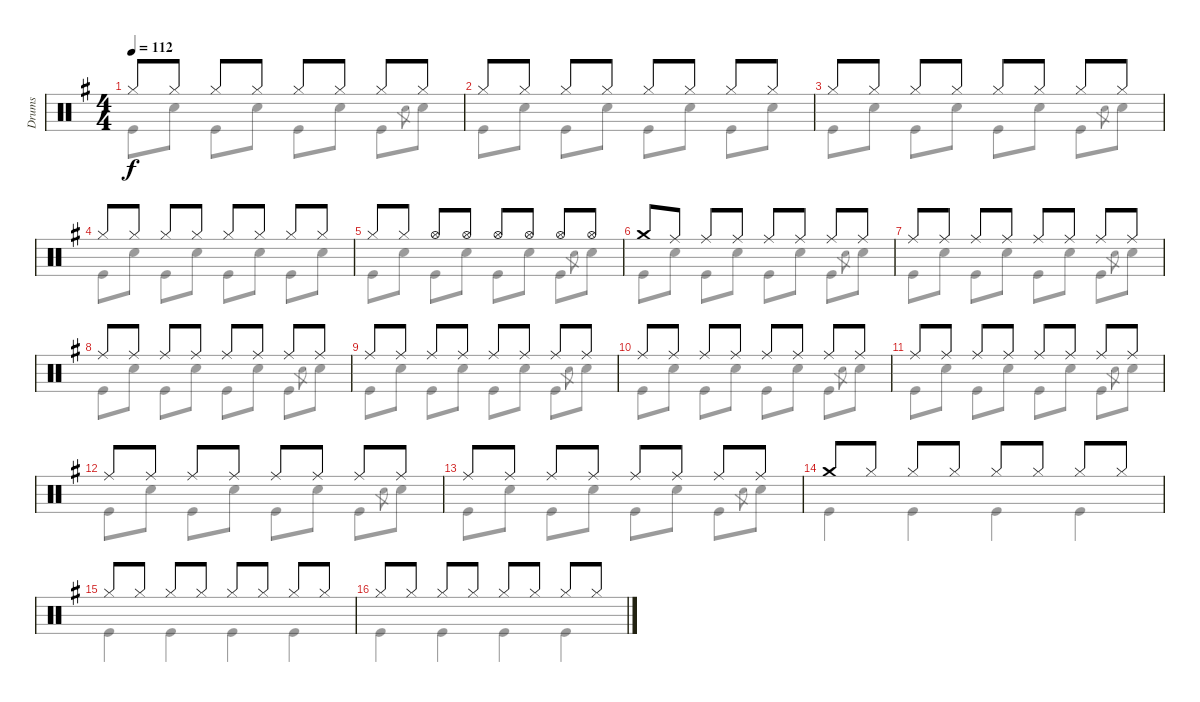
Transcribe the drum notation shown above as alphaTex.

\track ("Drums" "Drums") {instrument percussion}
\staff {score}
\articulation defaults
\voice
\ts (4 4)
\tempo 112
\clef neutral
\ks g "Hi-Hat (closed)".8{dy f} "Hi-Hat (closed)".8 "Hi-Hat (closed)".8 "Hi-Hat (closed)".8 "Hi-Hat (closed)".8 "Hi-Hat (closed)".8 "Hi-Hat (closed)".8 "Hi-Hat (closed)".8
|
"Hi-Hat (closed)".8 "Hi-Hat (closed)".8 "Hi-Hat (closed)".8 "Hi-Hat (closed)".8 "Hi-Hat (closed)".8 "Hi-Hat (closed)".8 "Hi-Hat (closed)".8 "Hi-Hat (closed)".8 |
"Hi-Hat (closed)".8 "Hi-Hat (closed)".8 "Hi-Hat (closed)".8 "Hi-Hat (closed)".8 "Hi-Hat (closed)".8 "Hi-Hat (closed)".8 "Hi-Hat (closed)".8 "Hi-Hat (closed)".8 |
"Hi-Hat (closed)".8 "Hi-Hat (closed)".8 "Hi-Hat (closed)".8 "Hi-Hat (closed)".8 "Hi-Hat (closed)".8 "Hi-Hat (closed)".8 "Hi-Hat (closed)".8 "Hi-Hat (closed)".8 |
"Hi-Hat (closed)".8 "Hi-Hat (closed)".8 "Hi-Hat (open)".8 "Hi-Hat (open)".8 "Hi-Hat (open)".8 "Hi-Hat (open)".8 "Hi-Hat (open)".8 "Hi-Hat (open)".8 |
"Crash medium (hit)".8 "Ride (middle)".8 "Ride (middle)".8 "Ride (middle)".8 "Ride (middle)".8 "Ride (middle)".8 "Ride (middle)".8 "Ride (middle)".8 |
"Ride (middle)".8 "Ride (middle)".8 "Ride (middle)".8 "Ride (middle)".8 "Ride (middle)".8 "Ride (middle)".8 "Ride (middle)".8 "Ride (middle)".8 |
"Ride (middle)".8 "Ride (middle)".8 "Ride (middle)".8 "Ride (middle)".8 "Ride (middle)".8 "Ride (middle)".8 "Ride (middle)".8 "Ride (middle)".8 |
"Ride (middle)".8 "Ride (middle)".8 "Ride (middle)".8 "Ride (middle)".8 "Ride (middle)".8 "Ride (middle)".8 "Ride (middle)".8 "Ride (middle)".8 |
"Ride (middle)".8 "Ride (middle)".8 "Ride (middle)".8 "Ride (middle)".8 "Ride (middle)".8 "Ride (middle)".8 "Ride (middle)".8 "Ride (middle)".8 |
"Ride (middle)".8 "Ride (middle)".8 "Ride (middle)".8 "Ride (middle)".8 "Ride (middle)".8 "Ride (middle)".8 "Ride (middle)".8 "Ride (middle)".8 |
"Ride (middle)".8 "Ride (middle)".8 "Ride (middle)".8 "Ride (middle)".8 "Ride (middle)".8 "Ride (middle)".8 "Ride (middle)".8 "Ride (middle)".8 |
"Ride (middle)".8 "Ride (middle)".8 "Ride (middle)".8 "Ride (middle)".8 "Ride (middle)".8 "Ride (middle)".8 "Ride (middle)".8 "Ride (middle)".8 |
"Crash medium (hit)".8 "Hi-Hat (closed)".8 "Hi-Hat (closed)".8 "Hi-Hat (closed)".8 "Hi-Hat (closed)".8 "Hi-Hat (closed)".8 "Hi-Hat (closed)".8 "Hi-Hat (closed)".8 |
"Hi-Hat (closed)".8 "Hi-Hat (closed)".8 "Hi-Hat (closed)".8 "Hi-Hat (closed)".8 "Hi-Hat (closed)".8 "Hi-Hat (closed)".8 "Hi-Hat (closed)".8 "Hi-Hat (closed)".8 |
"Hi-Hat (closed)".8 "Hi-Hat (closed)".8 "Hi-Hat (closed)".8 "Hi-Hat (closed)".8 "Hi-Hat (closed)".8 "Hi-Hat (closed)".8 "Hi-Hat (closed)".8 "Hi-Hat (closed)".8
\voice
\clef neutral
\ottava regular
\simile none
\ks g "Kick (hit)".8{dy f} "Snare (hit) 2".8 "Kick (hit)".8 "Snare (hit) 2".8 "Kick (hit)".8 "Snare (hit) 2".8 "Kick (hit)".8 "Snare (hit) 2".8{gr} "Snare (hit) 2".8
|
"Kick (hit)".8 "Snare (hit) 2".8 "Kick (hit)".8 "Snare (hit) 2".8 "Kick (hit)".8 "Snare (hit) 2".8 "Kick (hit)".8 "Snare (hit) 2".8 |
"Kick (hit)".8 "Snare (hit) 2".8 "Kick (hit)".8 "Snare (hit) 2".8 "Kick (hit)".8 "Snare (hit) 2".8 "Kick (hit)".8 "Snare (hit) 2".8{gr} "Snare (hit) 2".8 |
"Kick (hit)".8 "Snare (hit) 2".8 "Kick (hit)".8 "Snare (hit) 2".8 "Kick (hit)".8 "Snare (hit) 2".8 "Kick (hit)".8 "Snare (hit) 2".8 |
"Kick (hit)".8 "Snare (hit) 2".8 "Kick (hit)".8 "Snare (hit) 2".8 "Kick (hit)".8 "Snare (hit) 2".8 "Kick (hit)".8 "Snare (hit) 2".8{gr} "Snare (hit) 2".8 |
"Kick (hit)".8 "Snare (hit) 2".8 "Kick (hit)".8 "Snare (hit) 2".8 "Kick (hit)".8 "Snare (hit) 2".8 "Kick (hit)".8 "Snare (hit) 2".8{gr} "Snare (hit) 2".8 |
"Kick (hit)".8 "Snare (hit) 2".8 "Kick (hit)".8 "Snare (hit) 2".8 "Kick (hit)".8 "Snare (hit) 2".8 "Kick (hit)".8 "Snare (hit) 2".8{gr} "Snare (hit) 2".8 |
"Kick (hit)".8 "Snare (hit) 2".8 "Kick (hit)".8 "Snare (hit) 2".8 "Kick (hit)".8 "Snare (hit) 2".8 "Kick (hit)".8 "Snare (hit) 2".8{gr} "Snare (hit) 2".8 |
"Kick (hit)".8 "Snare (hit) 2".8 "Kick (hit)".8 "Snare (hit) 2".8 "Kick (hit)".8 "Snare (hit) 2".8 "Kick (hit)".8 "Snare (hit) 2".8{gr} "Snare (hit) 2".8 |
"Kick (hit)".8 "Snare (hit) 2".8 "Kick (hit)".8 "Snare (hit) 2".8 "Kick (hit)".8 "Snare (hit) 2".8 "Kick (hit)".8 "Snare (hit) 2".8{gr} "Snare (hit) 2".8 |
"Kick (hit)".8 "Snare (hit) 2".8 "Kick (hit)".8 "Snare (hit) 2".8 "Kick (hit)".8 "Snare (hit) 2".8 "Kick (hit)".8 "Snare (hit) 2".8{gr} "Snare (hit) 2".8 |
"Kick (hit)".8 "Snare (hit) 2".8 "Kick (hit)".8 "Snare (hit) 2".8 "Kick (hit)".8 "Snare (hit) 2".8 "Kick (hit)".8 "Snare (hit) 2".8{gr} "Snare (hit) 2".8 |
"Kick (hit)".8 "Snare (hit) 2".8 "Kick (hit)".8 "Snare (hit) 2".8 "Kick (hit)".8 "Snare (hit) 2".8 "Kick (hit)".8 "Snare (hit) 2".8{gr} "Snare (hit) 2".8 |
"Kick (hit)".4 "Kick (hit)".4 "Kick (hit)".4 "Kick (hit)".4 |
"Kick (hit)".4 "Kick (hit)".4 "Kick (hit)".4 "Kick (hit)".4 |
"Kick (hit)".4 "Kick (hit)".4 "Kick (hit)".4 "Kick (hit)".4
